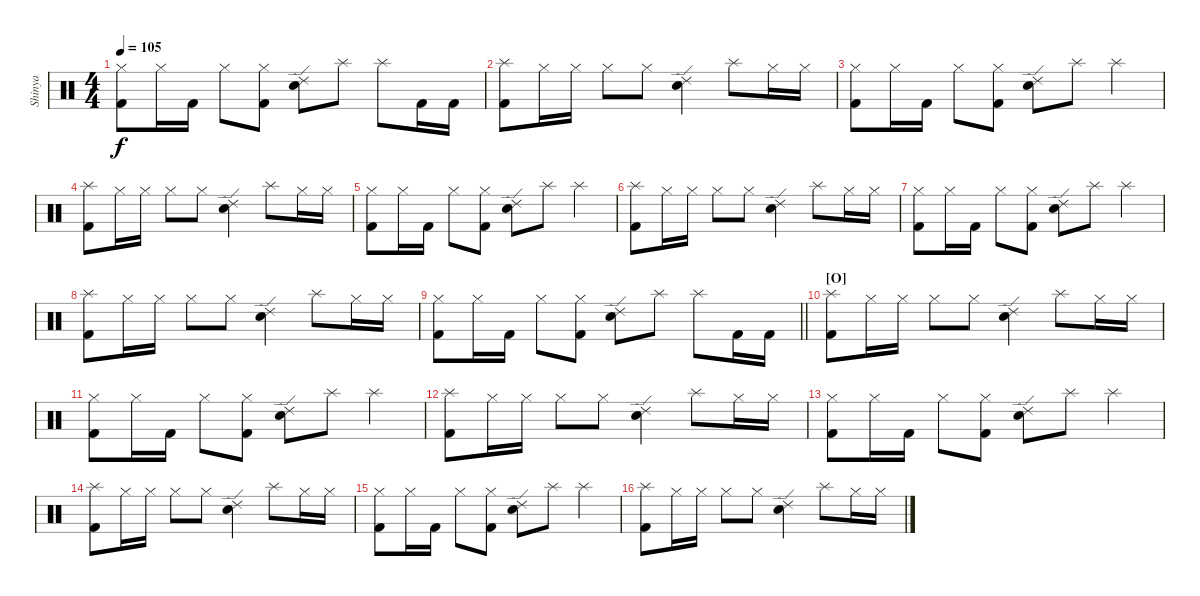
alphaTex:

\track ("Shinya" "Shinya") {instrument percussion}
\staff {score}
\articulation defaults
\ts (4 4)
\tempo 105
\clef neutral
\ks c
("Hi-Hat (closed)" "Kick (hit) 2").8{dy f} "Hi-Hat (closed)".16 "Kick (hit) 2".16 "Hi-Hat (closed)".8 ("Hi-Hat (closed)" "Kick (hit) 2").8 ("Ride (edge) 2" "Snare (hit) 2").8 "Splash (hit)".8 "Splash (hit)".8 "Kick (hit) 2".16 "Kick (hit) 2".16 |
("Splash (hit)" "Kick (hit) 2").8 "Hi-Hat (closed)".16 "Hi-Hat (closed)".16 "Hi-Hat (closed)".8 "Hi-Hat (closed)".8 ("Ride (edge) 2" "Snare (hit) 2").4 "Splash (hit)".8 "Hi-Hat (closed)".16 "Hi-Hat (closed)".16 |
("Hi-Hat (closed)" "Kick (hit) 2").8 "Hi-Hat (closed)".16 "Kick (hit) 2".16 "Hi-Hat (closed)".8 ("Hi-Hat (closed)" "Kick (hit) 2").8 ("Ride (edge) 2" "Snare (hit) 2").8 "Splash (hit)".8 "Splash (hit)".4 |
("Splash (hit)" "Kick (hit) 2").8 "Hi-Hat (closed)".16 "Hi-Hat (closed)".16 "Hi-Hat (closed)".8 "Hi-Hat (closed)".8 ("Ride (edge) 2" "Snare (hit) 2").4 "Splash (hit)".8 "Hi-Hat (closed)".16 "Hi-Hat (closed)".16 |
("Hi-Hat (closed)" "Kick (hit) 2").8 "Hi-Hat (closed)".16 "Kick (hit) 2".16 "Hi-Hat (closed)".8 ("Hi-Hat (closed)" "Kick (hit) 2").8 ("Ride (edge) 2" "Snare (hit) 2").8 "Splash (hit)".8 "Splash (hit)".4 |
("Splash (hit)" "Kick (hit) 2").8 "Hi-Hat (closed)".16 "Hi-Hat (closed)".16 "Hi-Hat (closed)".8 "Hi-Hat (closed)".8 ("Ride (edge) 2" "Snare (hit) 2").4 "Splash (hit)".8 "Hi-Hat (closed)".16 "Hi-Hat (closed)".16 |
("Hi-Hat (closed)" "Kick (hit) 2").8 "Hi-Hat (closed)".16 "Kick (hit) 2".16 "Hi-Hat (closed)".8 ("Hi-Hat (closed)" "Kick (hit) 2").8 ("Ride (edge) 2" "Snare (hit) 2").8 "Splash (hit)".8 "Splash (hit)".4 |
("Splash (hit)" "Kick (hit) 2").8 "Hi-Hat (closed)".16 "Hi-Hat (closed)".16 "Hi-Hat (closed)".8 "Hi-Hat (closed)".8 ("Ride (edge) 2" "Snare (hit) 2").4 "Splash (hit)".8 "Hi-Hat (closed)".16 "Hi-Hat (closed)".16 |
\barLineRight lightlight
("Hi-Hat (closed)" "Kick (hit) 2").8 "Hi-Hat (closed)".16 "Kick (hit) 2".16 "Hi-Hat (closed)".8 ("Hi-Hat (closed)" "Kick (hit) 2").8 ("Ride (edge) 2" "Snare (hit) 2").8 "Splash (hit)".8 "Splash (hit)".8 "Kick (hit) 2".16 "Kick (hit) 2".16 |
\section ("" "[O]")
("Splash (hit)" "Kick (hit) 2").8 "Hi-Hat (closed)".16 "Hi-Hat (closed)".16 "Hi-Hat (closed)".8 "Hi-Hat (closed)".8 ("Ride (edge) 2" "Snare (hit) 2").4 "Splash (hit)".8 "Hi-Hat (closed)".16 "Hi-Hat (closed)".16 |
("Hi-Hat (closed)" "Kick (hit) 2").8 "Hi-Hat (closed)".16 "Kick (hit) 2".16 "Hi-Hat (closed)".8 ("Hi-Hat (closed)" "Kick (hit) 2").8 ("Ride (edge) 2" "Snare (hit) 2").8 "Splash (hit)".8 "Splash (hit)".4 |
("Splash (hit)" "Kick (hit) 2").8 "Hi-Hat (closed)".16 "Hi-Hat (closed)".16 "Hi-Hat (closed)".8 "Hi-Hat (closed)".8 ("Ride (edge) 2" "Snare (hit) 2").4 "Splash (hit)".8 "Hi-Hat (closed)".16 "Hi-Hat (closed)".16 |
("Hi-Hat (closed)" "Kick (hit) 2").8 "Hi-Hat (closed)".16 "Kick (hit) 2".16 "Hi-Hat (closed)".8 ("Hi-Hat (closed)" "Kick (hit) 2").8 ("Ride (edge) 2" "Snare (hit) 2").8 "Splash (hit)".8 "Splash (hit)".4 |
("Splash (hit)" "Kick (hit) 2").8 "Hi-Hat (closed)".16 "Hi-Hat (closed)".16 "Hi-Hat (closed)".8 "Hi-Hat (closed)".8 ("Ride (edge) 2" "Snare (hit) 2").4 "Splash (hit)".8 "Hi-Hat (closed)".16 "Hi-Hat (closed)".16 |
("Hi-Hat (closed)" "Kick (hit) 2").8 "Hi-Hat (closed)".16 "Kick (hit) 2".16 "Hi-Hat (closed)".8 ("Hi-Hat (closed)" "Kick (hit) 2").8 ("Ride (edge) 2" "Snare (hit) 2").8 "Splash (hit)".8 "Splash (hit)".4 |
("Splash (hit)" "Kick (hit) 2").8 "Hi-Hat (closed)".16 "Hi-Hat (closed)".16 "Hi-Hat (closed)".8 "Hi-Hat (closed)".8 ("Ride (edge) 2" "Snare (hit) 2").4 "Splash (hit)".8 "Hi-Hat (closed)".16 "Hi-Hat (closed)".16
